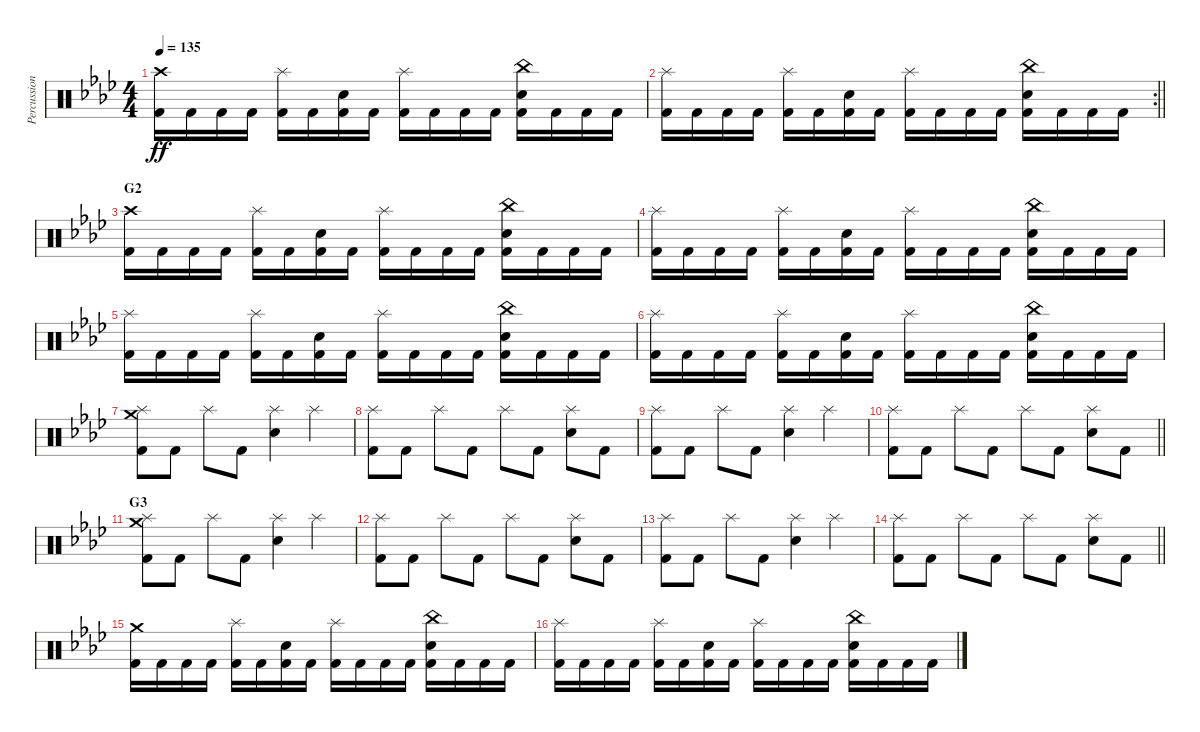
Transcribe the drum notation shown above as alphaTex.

\track ("Percussion" "Percussion") {instrument percussion}
\staff {score}
\articulation defaults
\ts (4 4)
\tempo 135
\clef neutral
\ks fminor
("Crash high (hit)" "Kick (hit) 2").16{dy ff} "Kick (hit) 2".16 "Kick (hit) 2".16 "Kick (hit) 2".16 ("Splash (hit)" "Kick (hit) 2").16 "Kick (hit) 2".16 ("Electric Snare (hit)" "Kick (hit) 2").16 "Kick (hit) 2".16 ("Splash (hit)" "Kick (hit) 2").16 "Kick (hit) 2".16 "Kick (hit) 2".16 "Kick (hit) 2".16 ("China (hit)" "Electric Snare (hit)" "Kick (hit) 2").16 "Kick (hit) 2".16 "Kick (hit) 2".16 "Kick (hit) 2".16 |
\rc 2
\barLineRight lightlight
("Splash (hit)" "Kick (hit) 2").16 "Kick (hit) 2".16 "Kick (hit) 2".16 "Kick (hit) 2".16 ("Splash (hit)" "Kick (hit) 2").16 "Kick (hit) 2".16 ("Electric Snare (hit)" "Kick (hit) 2").16 "Kick (hit) 2".16 ("Splash (hit)" "Kick (hit) 2").16 "Kick (hit) 2".16 "Kick (hit) 2".16 "Kick (hit) 2".16 ("China (hit)" "Electric Snare (hit)" "Kick (hit) 2").16 "Kick (hit) 2".16 "Kick (hit) 2".16 "Kick (hit) 2".16 |
\section ("" "G2")
("Crash high (hit)" "Kick (hit) 2").16 "Kick (hit) 2".16 "Kick (hit) 2".16 "Kick (hit) 2".16 ("Splash (hit)" "Kick (hit) 2").16 "Kick (hit) 2".16 ("Electric Snare (hit)" "Kick (hit) 2").16 "Kick (hit) 2".16 ("Splash (hit)" "Kick (hit) 2").16 "Kick (hit) 2".16 "Kick (hit) 2".16 "Kick (hit) 2".16 ("China (hit)" "Electric Snare (hit)" "Kick (hit) 2").16 "Kick (hit) 2".16 "Kick (hit) 2".16 "Kick (hit) 2".16 |
("Splash (hit)" "Kick (hit) 2").16 "Kick (hit) 2".16 "Kick (hit) 2".16 "Kick (hit) 2".16 ("Splash (hit)" "Kick (hit) 2").16 "Kick (hit) 2".16 ("Electric Snare (hit)" "Kick (hit) 2").16 "Kick (hit) 2".16 ("Splash (hit)" "Kick (hit) 2").16 "Kick (hit) 2".16 "Kick (hit) 2".16 "Kick (hit) 2".16 ("China (hit)" "Electric Snare (hit)" "Kick (hit) 2").16 "Kick (hit) 2".16 "Kick (hit) 2".16 "Kick (hit) 2".16 |
("Splash (hit)" "Kick (hit) 2").16 "Kick (hit) 2".16 "Kick (hit) 2".16 "Kick (hit) 2".16 ("Splash (hit)" "Kick (hit) 2").16 "Kick (hit) 2".16 ("Electric Snare (hit)" "Kick (hit) 2").16 "Kick (hit) 2".16 ("Splash (hit)" "Kick (hit) 2").16 "Kick (hit) 2".16 "Kick (hit) 2".16 "Kick (hit) 2".16 ("China (hit)" "Electric Snare (hit)" "Kick (hit) 2").16 "Kick (hit) 2".16 "Kick (hit) 2".16 "Kick (hit) 2".16 |
("Splash (hit)" "Kick (hit) 2").16 "Kick (hit) 2".16 "Kick (hit) 2".16 "Kick (hit) 2".16 ("Splash (hit)" "Kick (hit) 2").16 "Kick (hit) 2".16 ("Electric Snare (hit)" "Kick (hit) 2").16 "Kick (hit) 2".16 ("Splash (hit)" "Kick (hit) 2").16 "Kick (hit) 2".16 "Kick (hit) 2".16 "Kick (hit) 2".16 ("China (hit)" "Electric Snare (hit)" "Kick (hit) 2").16 "Kick (hit) 2".16 "Kick (hit) 2".16 "Kick (hit) 2".16 |
("Crash medium (hit)" "Splash (hit)" "Kick (hit) 2").8 "Kick (hit) 2".8 "Splash (hit)".8 "Kick (hit) 2".8 ("Splash (hit)" "Electric Snare (hit)").4 "Splash (hit)".4 |
("Splash (hit)" "Kick (hit) 2").8 "Kick (hit) 2".8 "Splash (hit)".8 "Kick (hit) 2".8 "Splash (hit)".8 "Kick (hit) 2".8 ("Splash (hit)" "Electric Snare (hit)").8 "Kick (hit) 2".8 |
("Splash (hit)" "Kick (hit) 2").8 "Kick (hit) 2".8 "Splash (hit)".8 "Kick (hit) 2".8 ("Splash (hit)" "Electric Snare (hit)").4 "Splash (hit)".4 |
\barLineRight lightlight
("Splash (hit)" "Kick (hit) 2").8 "Kick (hit) 2".8 "Splash (hit)".8 "Kick (hit) 2".8 "Splash (hit)".8 "Kick (hit) 2".8 ("Splash (hit)" "Electric Snare (hit)").8 "Kick (hit) 2".8 |
\section ("" "G3")
("Crash medium (hit)" "Splash (hit)" "Kick (hit) 2").8 "Kick (hit) 2".8 "Splash (hit)".8 "Kick (hit) 2".8 ("Splash (hit)" "Electric Snare (hit)").4 "Splash (hit)".4 |
("Splash (hit)" "Kick (hit) 2").8 "Kick (hit) 2".8 "Splash (hit)".8 "Kick (hit) 2".8 "Splash (hit)".8 "Kick (hit) 2".8 ("Splash (hit)" "Electric Snare (hit)").8 "Kick (hit) 2".8 |
("Splash (hit)" "Kick (hit) 2").8 "Kick (hit) 2".8 "Splash (hit)".8 "Kick (hit) 2".8 ("Splash (hit)" "Electric Snare (hit)").4 "Splash (hit)".4 |
\barLineRight lightlight
("Splash (hit)" "Kick (hit) 2").8 "Kick (hit) 2".8 "Splash (hit)".8 "Kick (hit) 2".8 "Splash (hit)".8 "Kick (hit) 2".8 ("Splash (hit)" "Electric Snare (hit)").8 "Kick (hit) 2".8 |
\section ("" "")
("Crash medium (hit)" "Kick (hit) 2").16 "Kick (hit) 2".16 "Kick (hit) 2".16 "Kick (hit) 2".16 ("Splash (hit)" "Kick (hit) 2").16 "Kick (hit) 2".16 ("Electric Snare (hit)" "Kick (hit) 2").16 "Kick (hit) 2".16 ("Splash (hit)" "Kick (hit) 2").16 "Kick (hit) 2".16 "Kick (hit) 2".16 "Kick (hit) 2".16 ("China (hit)" "Electric Snare (hit)" "Kick (hit) 2").16 "Kick (hit) 2".16 "Kick (hit) 2".16 "Kick (hit) 2".16 |
("Splash (hit)" "Kick (hit) 2").16 "Kick (hit) 2".16 "Kick (hit) 2".16 "Kick (hit) 2".16 ("Splash (hit)" "Kick (hit) 2").16 "Kick (hit) 2".16 ("Electric Snare (hit)" "Kick (hit) 2").16 "Kick (hit) 2".16 ("Splash (hit)" "Kick (hit) 2").16 "Kick (hit) 2".16 "Kick (hit) 2".16 "Kick (hit) 2".16 ("China (hit)" "Electric Snare (hit)" "Kick (hit) 2").16 "Kick (hit) 2".16 "Kick (hit) 2".16 "Kick (hit) 2".16
